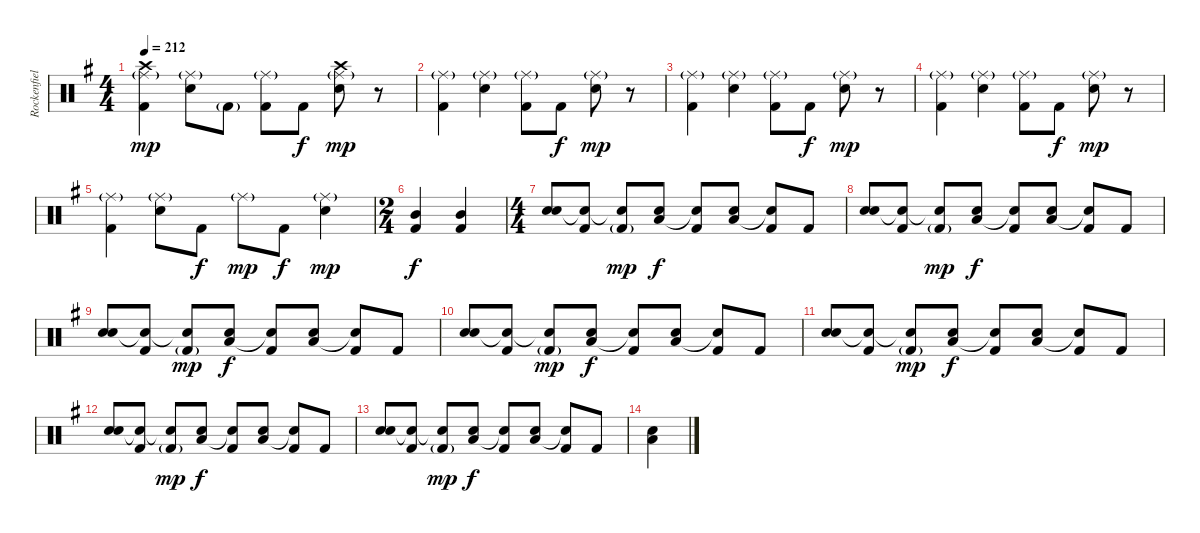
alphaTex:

\track ("Rockenfield" "Rockenfiel") {instrument percussion}
\staff {score}
\articulation defaults
\ts (4 4)
\tempo 212
\clef neutral
\ks g
("Ride (middle)"{g} "Crash high (hit)" "Kick (hit) 2").4{dy mp} ("Ride (middle)"{g} "Electric Snare (hit)").8 "Kick (hit) 2"{g}.8 ("Ride (middle)"{g} "Kick (hit) 2").8 "Kick (hit) 2".8{dy f} ("Ride (middle)"{g} "Crash high (hit)" "Electric Snare (hit)").8{dy mp} r.8 |
("Ride (middle)"{g} "Kick (hit) 2").4 ("Ride (middle)"{g} "Electric Snare (hit)").4 ("Ride (middle)"{g} "Kick (hit) 2").8 "Kick (hit) 2".8{dy f} ("Ride (middle)"{g} "Electric Snare (hit)").8{dy mp} r.8 |
("Ride (middle)"{g} "Kick (hit) 2").4 ("Ride (middle)"{g} "Electric Snare (hit)").4 ("Ride (middle)"{g} "Kick (hit) 2").8 "Kick (hit) 2".8{dy f} ("Ride (middle)"{g} "Electric Snare (hit)").8{dy mp} r.8 |
("Ride (middle)"{g} "Kick (hit) 2").4 ("Ride (middle)"{g} "Electric Snare (hit)").4 ("Ride (middle)"{g} "Kick (hit) 2").8 "Kick (hit) 2".8{dy f} ("Ride (middle)"{g} "Electric Snare (hit)").8{dy mp} r.8 |
("Ride (middle)"{g} "Kick (hit) 2").4 ("Ride (middle)"{g} "Electric Snare (hit)").8 "Kick (hit) 2".8{dy f} "Ride (middle)"{g}.8{dy mp} "Kick (hit) 2".8{dy f} ("Ride (middle)"{g} "Electric Snare (hit)").4{dy mp} |
\ts (2 4)
("Mid Tom (hit)" "Kick (hit) 2").4{dy f} ("Mid Tom (hit)" "Kick (hit) 2").4 |
\ts (4 4)
("Electric Snare (hit)" "Electric Snare (hit)").8 ("Snare (hit)"{t} "Kick (hit) 2").8 ("Snare (hit)"{t} "Kick (hit) 2"{g}).8{dy mp} ("Low Floor Tom (hit)" "Electric Snare (hit)").8{dy f} ("Snare (hit)"{t} "Kick (hit) 2").8 ("Low Floor Tom (hit)" "Electric Snare (hit)").8 ("Snare (hit)"{t} "Kick (hit) 2").8 "Kick (hit) 2".8 |
("Electric Snare (hit)" "Electric Snare (hit)").8 ("Snare (hit)"{t} "Kick (hit) 2").8 ("Snare (hit)"{t} "Kick (hit) 2"{g}).8{dy mp} ("Low Floor Tom (hit)" "Electric Snare (hit)").8{dy f} ("Snare (hit)"{t} "Kick (hit) 2").8 ("Low Floor Tom (hit)" "Electric Snare (hit)").8 ("Snare (hit)"{t} "Kick (hit) 2").8 "Kick (hit) 2".8 |
("Electric Snare (hit)" "Electric Snare (hit)").8 ("Snare (hit)"{t} "Kick (hit) 2").8 ("Snare (hit)"{t} "Kick (hit) 2"{g}).8{dy mp} ("Low Floor Tom (hit)" "Electric Snare (hit)").8{dy f} ("Snare (hit)"{t} "Kick (hit) 2").8 ("Low Floor Tom (hit)" "Electric Snare (hit)").8 ("Snare (hit)"{t} "Kick (hit) 2").8 "Kick (hit) 2".8 |
("Electric Snare (hit)" "Electric Snare (hit)").8 ("Snare (hit)"{t} "Kick (hit) 2").8 ("Snare (hit)"{t} "Kick (hit) 2"{g}).8{dy mp} ("Low Floor Tom (hit)" "Electric Snare (hit)").8{dy f} ("Snare (hit)"{t} "Kick (hit) 2").8 ("Low Floor Tom (hit)" "Electric Snare (hit)").8 ("Snare (hit)"{t} "Kick (hit) 2").8 "Kick (hit) 2".8 |
("Electric Snare (hit)" "Electric Snare (hit)").8 ("Snare (hit)"{t} "Kick (hit) 2").8 ("Snare (hit)"{t} "Kick (hit) 2"{g}).8{dy mp} ("Low Floor Tom (hit)" "Electric Snare (hit)").8{dy f} ("Snare (hit)"{t} "Kick (hit) 2").8 ("Low Floor Tom (hit)" "Electric Snare (hit)").8 ("Snare (hit)"{t} "Kick (hit) 2").8 "Kick (hit) 2".8 |
("Electric Snare (hit)" "Electric Snare (hit)").8 ("Snare (hit)"{t} "Kick (hit) 2").8 ("Snare (hit)"{t} "Kick (hit) 2"{g}).8{dy mp} ("Low Floor Tom (hit)" "Electric Snare (hit)").8{dy f} ("Snare (hit)"{t} "Kick (hit) 2").8 ("Low Floor Tom (hit)" "Electric Snare (hit)").8 ("Snare (hit)"{t} "Kick (hit) 2").8 "Kick (hit) 2".8 |
("Electric Snare (hit)" "Electric Snare (hit)").8 ("Snare (hit)"{t} "Kick (hit) 2").8 ("Snare (hit)"{t} "Kick (hit) 2"{g}).8{dy mp} ("Low Floor Tom (hit)" "Electric Snare (hit)").8{dy f} ("Snare (hit)"{t} "Kick (hit) 2").8 ("Low Floor Tom (hit)" "Electric Snare (hit)").8 ("Snare (hit)"{t} "Kick (hit) 2").8 "Kick (hit) 2".8 |
("Low Floor Tom (hit)" "Electric Snare (hit)").4
